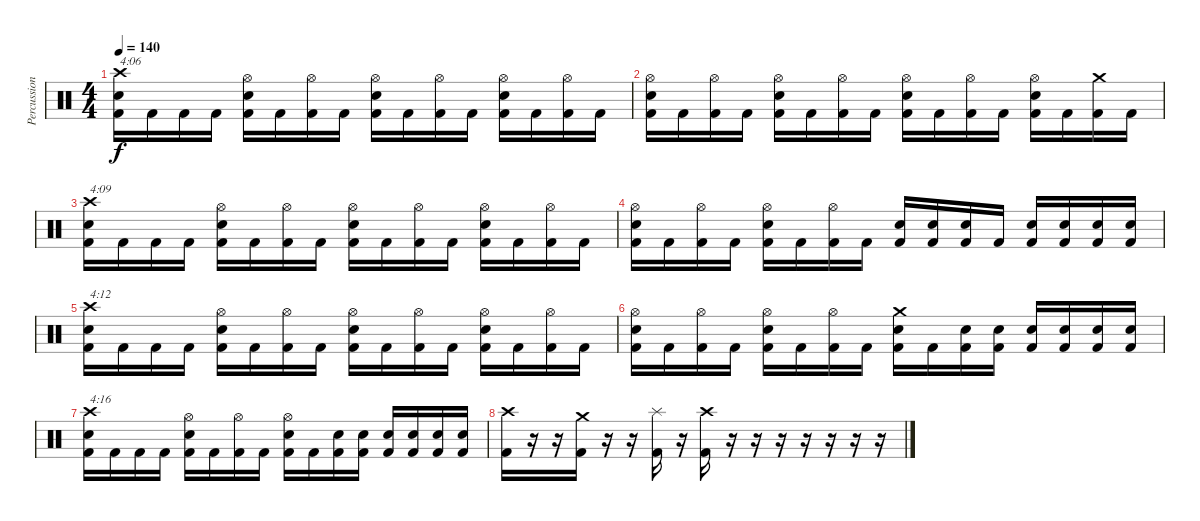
\track ("Percussion" "Percussion") {instrument percussion}
\staff {score}
\articulation defaults
\ts (4 4)
\tempo 140
\clef neutral
\ks c
("Crash high (hit)" "Electric Snare (hit)" "Kick (hit) 2").16{txt "4:06" dy f} "Kick (hit) 2".16 "Kick (hit) 2".16 "Kick (hit) 2".16 ("Hi-Hat (open)" "Electric Snare (hit)" "Kick (hit) 2").16 "Kick (hit) 2".16 ("Hi-Hat (open)" "Kick (hit) 2").16 "Kick (hit) 2".16 ("Hi-Hat (open)" "Electric Snare (hit)" "Kick (hit) 2").16 "Kick (hit) 2".16 ("Hi-Hat (open)" "Kick (hit) 2").16 "Kick (hit) 2".16 ("Hi-Hat (open)" "Electric Snare (hit)" "Kick (hit) 2").16 "Kick (hit) 2".16 ("Hi-Hat (open)" "Kick (hit) 2").16 "Kick (hit) 2".16 |
("Hi-Hat (open)" "Electric Snare (hit)" "Kick (hit) 2").16 "Kick (hit) 2".16 ("Hi-Hat (open)" "Kick (hit) 2").16 "Kick (hit) 2".16 ("Hi-Hat (open)" "Electric Snare (hit)" "Kick (hit) 2").16 "Kick (hit) 2".16 ("Hi-Hat (open)" "Kick (hit) 2").16 "Kick (hit) 2".16 ("Hi-Hat (open)" "Electric Snare (hit)" "Kick (hit) 2").16 "Kick (hit) 2".16 ("Hi-Hat (open)" "Kick (hit) 2").16 "Kick (hit) 2".16 ("Hi-Hat (open)" "Electric Snare (hit)" "Kick (hit) 2").16 "Kick (hit) 2".16 ("Crash medium (hit)" "Kick (hit) 2").16 "Kick (hit) 2".16 |
("Crash high (hit)" "Electric Snare (hit)" "Kick (hit) 2").16{txt "4:09"} "Kick (hit) 2".16 "Kick (hit) 2".16 "Kick (hit) 2".16 ("Hi-Hat (open)" "Electric Snare (hit)" "Kick (hit) 2").16 "Kick (hit) 2".16 ("Hi-Hat (open)" "Kick (hit) 2").16 "Kick (hit) 2".16 ("Hi-Hat (open)" "Electric Snare (hit)" "Kick (hit) 2").16 "Kick (hit) 2".16 ("Hi-Hat (open)" "Kick (hit) 2").16 "Kick (hit) 2".16 ("Hi-Hat (open)" "Electric Snare (hit)" "Kick (hit) 2").16 "Kick (hit) 2".16 ("Hi-Hat (open)" "Kick (hit) 2").16 "Kick (hit) 2".16 |
("Hi-Hat (open)" "Electric Snare (hit)" "Kick (hit) 2").16 "Kick (hit) 2".16 ("Hi-Hat (open)" "Kick (hit) 2").16 "Kick (hit) 2".16 ("Hi-Hat (open)" "Electric Snare (hit)" "Kick (hit) 2").16 "Kick (hit) 2".16 ("Hi-Hat (open)" "Kick (hit) 2").16 "Kick (hit) 2".16 ("Electric Snare (hit)" "Kick (hit) 2").16 ("Electric Snare (hit)" "Kick (hit) 2").16 ("Electric Snare (hit)" "Kick (hit) 2").16 "Kick (hit) 2".16 ("Electric Snare (hit)" "Kick (hit) 2").16 ("Electric Snare (hit)" "Kick (hit) 2").16 ("Electric Snare (hit)" "Kick (hit) 2").16 ("Electric Snare (hit)" "Kick (hit) 2").16 |
("Crash high (hit)" "Electric Snare (hit)" "Kick (hit) 2").16{txt "4:12"} "Kick (hit) 2".16 "Kick (hit) 2".16 "Kick (hit) 2".16 ("Hi-Hat (open)" "Electric Snare (hit)" "Kick (hit) 2").16 "Kick (hit) 2".16 ("Hi-Hat (open)" "Kick (hit) 2").16 "Kick (hit) 2".16 ("Hi-Hat (open)" "Electric Snare (hit)" "Kick (hit) 2").16 "Kick (hit) 2".16 ("Hi-Hat (open)" "Kick (hit) 2").16 "Kick (hit) 2".16 ("Hi-Hat (open)" "Electric Snare (hit)" "Kick (hit) 2").16 "Kick (hit) 2".16 ("Hi-Hat (open)" "Kick (hit) 2").16 "Kick (hit) 2".16 |
("Hi-Hat (open)" "Electric Snare (hit)" "Kick (hit) 2").16 "Kick (hit) 2".16 ("Hi-Hat (open)" "Kick (hit) 2").16 "Kick (hit) 2".16 ("Hi-Hat (open)" "Electric Snare (hit)" "Kick (hit) 2").16 "Kick (hit) 2".16 ("Hi-Hat (open)" "Kick (hit) 2").16 "Kick (hit) 2".16 ("Crash medium (hit)" "Electric Snare (hit)" "Kick (hit) 2").16 "Kick (hit) 2".16 ("Electric Snare (hit)" "Kick (hit) 2").16 ("Electric Snare (hit)" "Kick (hit) 2").16 ("Electric Snare (hit)" "Kick (hit) 2").16 ("Electric Snare (hit)" "Kick (hit) 2").16 ("Electric Snare (hit)" "Kick (hit) 2").16 ("Electric Snare (hit)" "Kick (hit) 2").16 |
("Crash high (hit)" "Electric Snare (hit)" "Kick (hit) 2").16{txt "4:16"} "Kick (hit) 2".16 "Kick (hit) 2".16 "Kick (hit) 2".16 ("Hi-Hat (open)" "Electric Snare (hit)" "Kick (hit) 2").16 "Kick (hit) 2".16 ("Hi-Hat (open)" "Kick (hit) 2").16 "Kick (hit) 2".16 ("Hi-Hat (open)" "Electric Snare (hit)" "Kick (hit) 2").16 "Kick (hit) 2".16 ("Electric Snare (hit)" "Kick (hit) 2").16 ("Electric Snare (hit)" "Kick (hit) 2").16 ("Electric Snare (hit)" "Kick (hit) 2").16 ("Electric Snare (hit)" "Kick (hit) 2").16 ("Electric Snare (hit)" "Kick (hit) 2").16 ("Electric Snare (hit)" "Kick (hit) 2").16 |
("Crash high (hit)" "Kick (hit) 2").16 r.16 r.16 ("Crash medium (hit)" "Kick (hit) 2").16 r.16 r.16 ("Splash (hit)" "Kick (hit) 2").16 r.16 ("Crash high (hit)" "Kick (hit) 2").16 r.16 r.16 r.16 r.16 r.16 r.16 r.16
